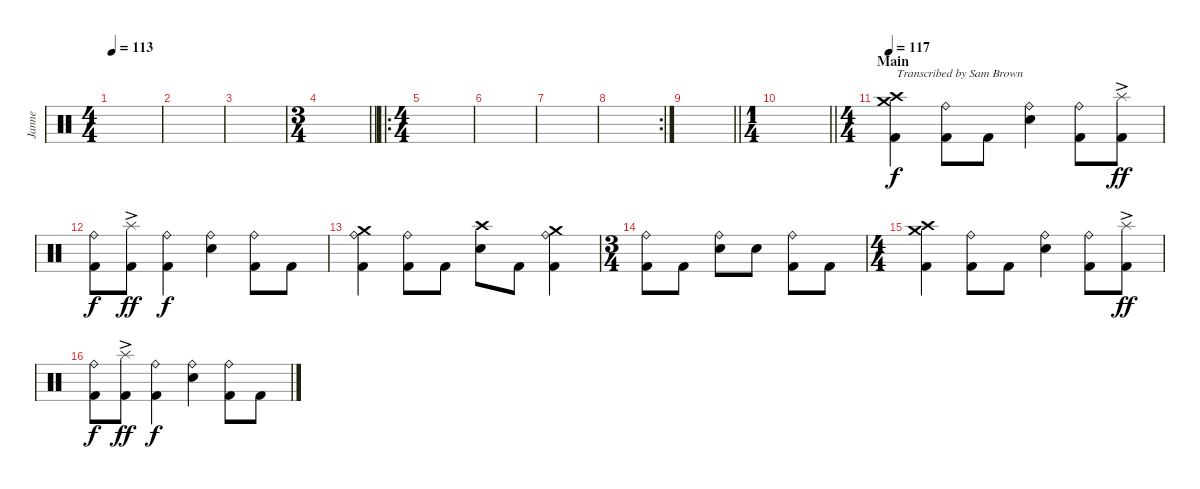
\track ("Janne" "Janne") {instrument percussion}
\staff {score}
\articulation defaults
\ts (4 4)
\tempo 113
\clef neutral
\ks c
|
|
|
\ts (3 4)
\barLineRight lightlight
|
\ro
\ts (4 4)
\section ("" "")
|
|
|
\rc 2
|
\barLineRight lightlight
|
\ts (1 4)
\section ("" "")
\barLineRight lightlight
|
\ts (4 4)
\section ("" "Main")
\tempo 117
("Kick (hit) 2" "Crash medium (hit)" "Crash high (hit)").4{txt "Transcribed by Sam Brown"} ("Kick (hit) 2" "Ride (bell)").8 "Kick (hit) 2".8 ("Snare (hit) 2" "Ride (bell)").4 ("Kick (hit) 2" "Ride (bell)").8 ("Kick (hit) 2" "Splash (hit)"{ac}).8{dy ff} |
("Kick (hit) 2" "Ride (bell)").8{dy f} ("Kick (hit) 2" "Splash (hit)"{ac}).8{dy ff} ("Kick (hit) 2" "Ride (bell)").4{dy f} ("Snare (hit) 2" "Ride (bell)").4 ("Kick (hit) 2" "Ride (bell)").8 "Kick (hit) 2".8 |
("Kick (hit) 2" "Ride (bell)" "Crash medium (hit)").4 ("Kick (hit) 2" "Ride (bell)").8 "Kick (hit) 2".8 ("Snare (hit) 2" "Crash high (hit)").8 "Kick (hit) 2".8 ("Kick (hit) 2" "Ride (bell)" "Crash medium (hit)").4 |
\ts (3 4)
("Kick (hit) 2" "Ride (bell)").8 "Kick (hit) 2".8 ("Snare (hit) 2" "Ride (bell)").8 "Snare (hit) 2".8 ("Kick (hit) 2" "Ride (bell)").8 "Kick (hit) 2".8 |
\ts (4 4)
("Kick (hit) 2" "Crash medium (hit)" "Crash high (hit)").4 ("Kick (hit) 2" "Ride (bell)").8 "Kick (hit) 2".8 ("Snare (hit) 2" "Ride (bell)").4 ("Kick (hit) 2" "Ride (bell)").8 ("Kick (hit) 2" "Splash (hit)"{ac}).8{dy ff} |
("Kick (hit) 2" "Ride (bell)").8{dy f} ("Kick (hit) 2" "Splash (hit)"{ac}).8{dy ff} ("Kick (hit) 2" "Ride (bell)").4{dy f} ("Snare (hit) 2" "Ride (bell)").4 ("Kick (hit) 2" "Ride (bell)").8 "Kick (hit) 2".8
